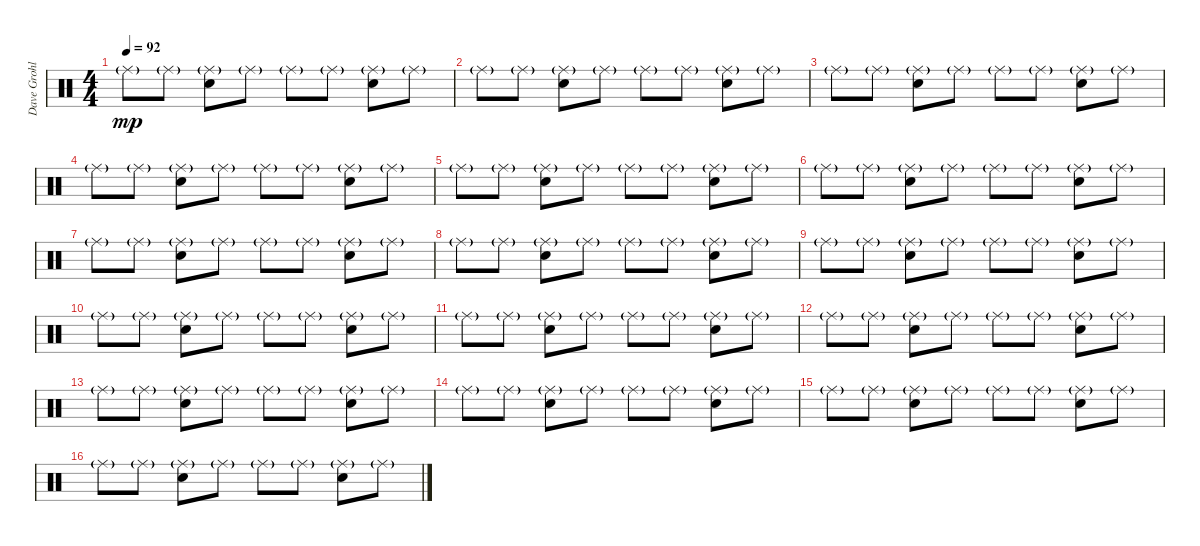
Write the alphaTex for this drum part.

\track ("Dave Grohl - Drums" "Dave Grohl") {instrument percussion}
\staff {score}
\articulation defaults
\ts (4 4)
\tempo 92
\clef neutral
\ks c "Ride (middle)"{g}.8{dy mp} "Ride (middle)"{g}.8
("Ride (middle)"{g} "Electric Snare (hit)").8 "Ride (middle)"{g}.8 "Ride (middle)"{g}.8 "Ride (middle)"{g}.8 ("Ride (middle)"{g} "Electric Snare (hit)").8 "Ride (middle)"{g}.8 |
"Ride (middle)"{g}.8 "Ride (middle)"{g}.8 ("Ride (middle)"{g} "Electric Snare (hit)").8 "Ride (middle)"{g}.8 "Ride (middle)"{g}.8 "Ride (middle)"{g}.8 ("Ride (middle)"{g} "Electric Snare (hit)").8 "Ride (middle)"{g}.8 |
"Ride (middle)"{g}.8 "Ride (middle)"{g}.8 ("Ride (middle)"{g} "Electric Snare (hit)").8 "Ride (middle)"{g}.8 "Ride (middle)"{g}.8 "Ride (middle)"{g}.8 ("Ride (middle)"{g} "Electric Snare (hit)").8 "Ride (middle)"{g}.8 |
"Ride (middle)"{g}.8 "Ride (middle)"{g}.8 ("Ride (middle)"{g} "Electric Snare (hit)").8 "Ride (middle)"{g}.8 "Ride (middle)"{g}.8 "Ride (middle)"{g}.8 ("Ride (middle)"{g} "Electric Snare (hit)").8 "Ride (middle)"{g}.8 |
"Ride (middle)"{g}.8 "Ride (middle)"{g}.8 ("Ride (middle)"{g} "Electric Snare (hit)").8 "Ride (middle)"{g}.8 "Ride (middle)"{g}.8 "Ride (middle)"{g}.8 ("Ride (middle)"{g} "Electric Snare (hit)").8 "Ride (middle)"{g}.8 |
"Ride (middle)"{g}.8 "Ride (middle)"{g}.8 ("Ride (middle)"{g} "Electric Snare (hit)").8 "Ride (middle)"{g}.8 "Ride (middle)"{g}.8 "Ride (middle)"{g}.8 ("Ride (middle)"{g} "Electric Snare (hit)").8 "Ride (middle)"{g}.8 |
"Ride (middle)"{g}.8 "Ride (middle)"{g}.8 ("Ride (middle)"{g} "Electric Snare (hit)").8 "Ride (middle)"{g}.8 "Ride (middle)"{g}.8 "Ride (middle)"{g}.8 ("Ride (middle)"{g} "Electric Snare (hit)").8 "Ride (middle)"{g}.8 |
"Ride (middle)"{g}.8 "Ride (middle)"{g}.8 ("Ride (middle)"{g} "Electric Snare (hit)").8 "Ride (middle)"{g}.8 "Ride (middle)"{g}.8 "Ride (middle)"{g}.8 ("Ride (middle)"{g} "Electric Snare (hit)").8 "Ride (middle)"{g}.8 |
"Ride (middle)"{g}.8 "Ride (middle)"{g}.8 ("Ride (middle)"{g} "Electric Snare (hit)").8 "Ride (middle)"{g}.8 "Ride (middle)"{g}.8 "Ride (middle)"{g}.8 ("Ride (middle)"{g} "Electric Snare (hit)").8 "Ride (middle)"{g}.8 |
"Ride (middle)"{g}.8 "Ride (middle)"{g}.8 ("Ride (middle)"{g} "Electric Snare (hit)").8 "Ride (middle)"{g}.8 "Ride (middle)"{g}.8 "Ride (middle)"{g}.8 ("Ride (middle)"{g} "Electric Snare (hit)").8 "Ride (middle)"{g}.8 |
"Ride (middle)"{g}.8 "Ride (middle)"{g}.8 ("Ride (middle)"{g} "Electric Snare (hit)").8 "Ride (middle)"{g}.8 "Ride (middle)"{g}.8 "Ride (middle)"{g}.8 ("Ride (middle)"{g} "Electric Snare (hit)").8 "Ride (middle)"{g}.8 |
"Ride (middle)"{g}.8 "Ride (middle)"{g}.8 ("Ride (middle)"{g} "Electric Snare (hit)").8 "Ride (middle)"{g}.8 "Ride (middle)"{g}.8 "Ride (middle)"{g}.8 ("Ride (middle)"{g} "Electric Snare (hit)").8 "Ride (middle)"{g}.8 |
"Ride (middle)"{g}.8 "Ride (middle)"{g}.8 ("Ride (middle)"{g} "Electric Snare (hit)").8 "Ride (middle)"{g}.8 "Ride (middle)"{g}.8 "Ride (middle)"{g}.8 ("Ride (middle)"{g} "Electric Snare (hit)").8 "Ride (middle)"{g}.8 |
"Ride (middle)"{g}.8 "Ride (middle)"{g}.8 ("Ride (middle)"{g} "Electric Snare (hit)").8 "Ride (middle)"{g}.8 "Ride (middle)"{g}.8 "Ride (middle)"{g}.8 ("Ride (middle)"{g} "Electric Snare (hit)").8 "Ride (middle)"{g}.8 |
"Ride (middle)"{g}.8 "Ride (middle)"{g}.8 ("Ride (middle)"{g} "Electric Snare (hit)").8 "Ride (middle)"{g}.8 "Ride (middle)"{g}.8 "Ride (middle)"{g}.8 ("Ride (middle)"{g} "Electric Snare (hit)").8 "Ride (middle)"{g}.8 |
"Ride (middle)"{g}.8 "Ride (middle)"{g}.8 ("Ride (middle)"{g} "Electric Snare (hit)").8 "Ride (middle)"{g}.8 "Ride (middle)"{g}.8 "Ride (middle)"{g}.8 ("Ride (middle)"{g} "Electric Snare (hit)").8 "Ride (middle)"{g}.8
